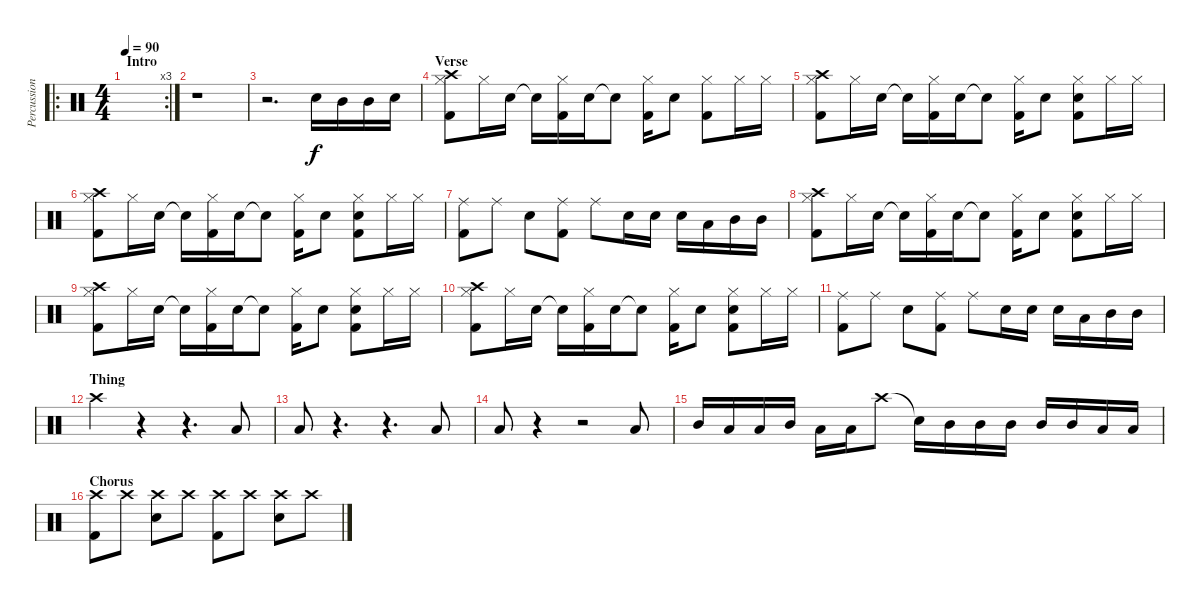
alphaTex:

\track ("Percussion" "Percussion") {instrument percussion}
\staff {score}
\articulation defaults
\ro
\rc 3
\ts (4 4)
\section ("" "Intro")
\tempo 90
\clef neutral
\ks c
|
r.1 |
r.2{d} "Electric Snare (hit)".16 "Mid Tom (hit)".16 "Mid Tom (hit)".16 "Electric Snare (hit)".16 |
\section ("" "Verse")
("Crash high (hit)" "Hi-Hat (closed)" "Kick (hit) 2").8 "Hi-Hat (closed)".16 "Electric Snare (hit)".16 "Snare (hit)"{t}.16 ("Hi-Hat (closed)" "Kick (hit) 2").16 "Electric Snare (hit)".16 "Snare (hit)"{t}.8 ("Hi-Hat (closed)" "Kick (hit) 2").16 "Electric Snare (hit)".8 ("Hi-Hat (closed)" "Kick (hit) 2").8 "Hi-Hat (closed)".16 "Hi-Hat (closed)".16 |
("Crash high (hit)" "Hi-Hat (closed)" "Kick (hit) 2").8 "Hi-Hat (closed)".16 "Electric Snare (hit)".16 "Snare (hit)"{t}.16 ("Hi-Hat (closed)" "Kick (hit) 2").16 "Electric Snare (hit)".16 "Snare (hit)"{t}.8 ("Hi-Hat (closed)" "Kick (hit) 2").16 "Electric Snare (hit)".8 ("Hi-Hat (closed)" "Electric Snare (hit)" "Kick (hit) 2").8 "Hi-Hat (closed)".16 "Hi-Hat (closed)".16 |
("Crash high (hit)" "Hi-Hat (closed)" "Kick (hit) 2").8 "Hi-Hat (closed)".16 "Electric Snare (hit)".16 "Snare (hit)"{t}.16 ("Hi-Hat (closed)" "Kick (hit) 2").16 "Electric Snare (hit)".16 "Snare (hit)"{t}.8 ("Hi-Hat (closed)" "Kick (hit) 2").16 "Electric Snare (hit)".8 ("Hi-Hat (closed)" "Electric Snare (hit)" "Kick (hit) 2").8 "Hi-Hat (closed)".16 "Hi-Hat (closed)".16 |
("Ride (middle)" "Kick (hit) 2").8 "Ride (middle)".8 "Electric Snare (hit)".8 ("Ride (middle)" "Kick (hit) 2").8 "Ride (middle)".8 "Electric Snare (hit)".16 "Electric Snare (hit)".16 "Electric Snare (hit)".16 "Low Tom (hit)".16 "Mid Tom (hit)".16 "Mid Tom (hit)".16 |
("Crash high (hit)" "Hi-Hat (closed)" "Kick (hit) 2").8 "Hi-Hat (closed)".16 "Electric Snare (hit)".16 "Snare (hit)"{t}.16 ("Hi-Hat (closed)" "Kick (hit) 2").16 "Electric Snare (hit)".16 "Snare (hit)"{t}.8 ("Hi-Hat (closed)" "Kick (hit) 2").16 "Electric Snare (hit)".8 ("Hi-Hat (closed)" "Electric Snare (hit)" "Kick (hit) 2").8 "Hi-Hat (closed)".16 "Hi-Hat (closed)".16 |
("Crash high (hit)" "Hi-Hat (closed)" "Kick (hit) 2").8 "Hi-Hat (closed)".16 "Electric Snare (hit)".16 "Snare (hit)"{t}.16 ("Hi-Hat (closed)" "Kick (hit) 2").16 "Electric Snare (hit)".16 "Snare (hit)"{t}.8 ("Hi-Hat (closed)" "Kick (hit) 2").16 "Electric Snare (hit)".8 ("Hi-Hat (closed)" "Electric Snare (hit)" "Kick (hit) 2").8 "Hi-Hat (closed)".16 "Hi-Hat (closed)".16 |
("Crash high (hit)" "Hi-Hat (closed)" "Kick (hit) 2").8 "Hi-Hat (closed)".16 "Electric Snare (hit)".16 "Snare (hit)"{t}.16 ("Hi-Hat (closed)" "Kick (hit) 2").16 "Electric Snare (hit)".16 "Snare (hit)"{t}.8 ("Hi-Hat (closed)" "Kick (hit) 2").16 "Electric Snare (hit)".8 ("Hi-Hat (closed)" "Electric Snare (hit)" "Kick (hit) 2").8 "Hi-Hat (closed)".16 "Hi-Hat (closed)".16 |
("Ride (middle)" "Kick (hit) 2").8 "Ride (middle)".8 "Electric Snare (hit)".8 ("Ride (middle)" "Kick (hit) 2").8 "Ride (middle)".8 "Electric Snare (hit)".16 "Electric Snare (hit)".16 "Electric Snare (hit)".16 "Low Tom (hit)".16 "Mid Tom (hit)".16 "Mid Tom (hit)".16 |
\section ("" "Thing")
"Crash high (hit)".4 r.4 r.4{d} "Low Tom (hit)".8 |
"Low Tom (hit)".8 r.4{d} r.4{d} "Low Tom (hit)".8 |
"Low Tom (hit)".8 r.4 r.2 "Low Tom (hit)".8 |
"Mid Tom (hit)".16 "Low Tom (hit)".16 "Low Tom (hit)".16 "Mid Tom (hit)".16 "Low Tom (hit)".16 "Low Tom (hit)".16 "Crash high (hit)".8 "Snare (hit)"{t}.16 "Mid Tom (hit)".16 "Mid Tom (hit)".16 "Mid Tom (hit)".16 "Mid Tom (hit)".16 "Mid Tom (hit)".16 "Low Tom (hit)".16 "Low Tom (hit)".16 |
\section ("" "Chorus")
("Crash high (hit)" "Kick (hit) 2").8 "Crash high (hit)".8 ("Crash high (hit)" "Electric Snare (hit)").8 "Crash high (hit)".8 ("Crash high (hit)" "Kick (hit) 2").8 "Crash high (hit)".8 ("Crash high (hit)" "Electric Snare (hit)").8 "Crash high (hit)".8
